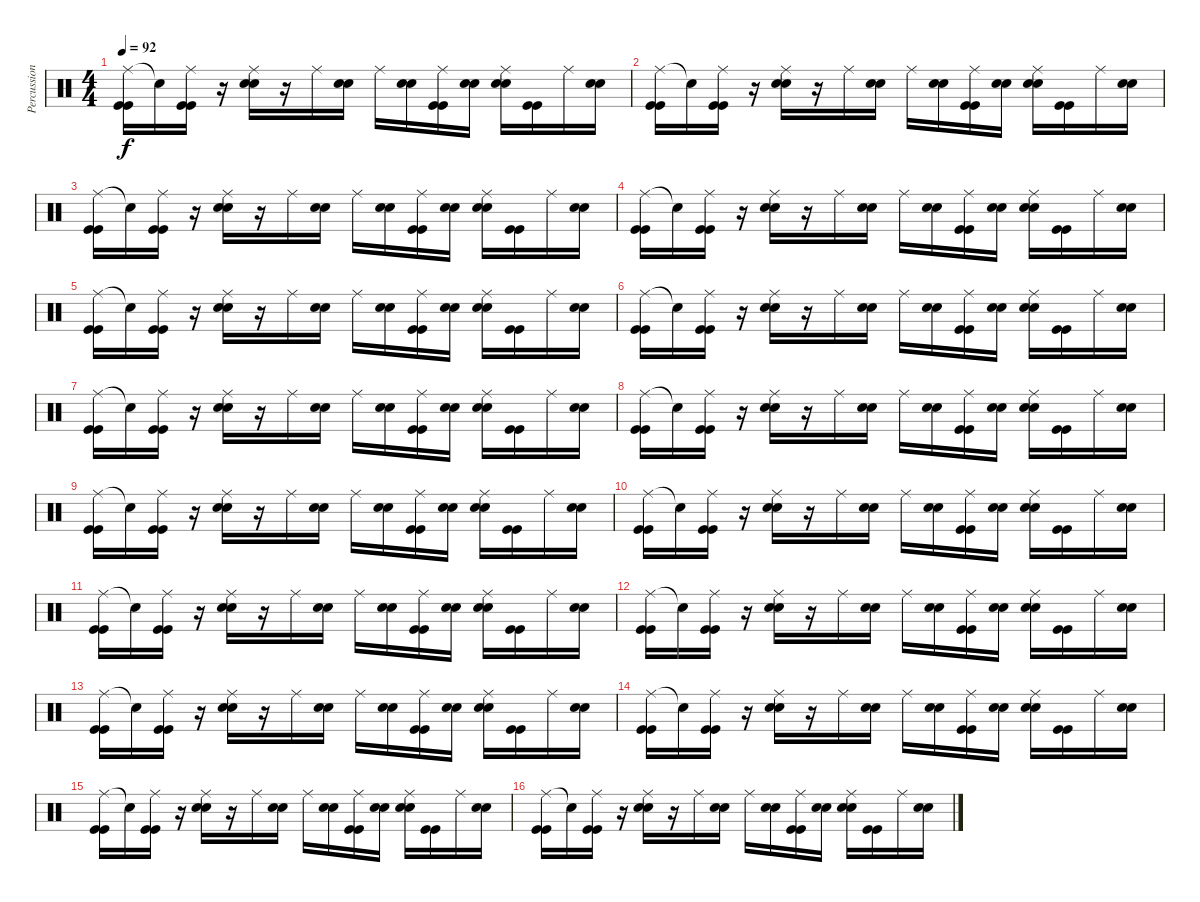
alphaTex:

\track ("Percussions" "Percussion") {instrument percussion}
\staff {score}
\articulation defaults
\ts (4 4)
\tempo 92
\clef neutral
\ks c
("Ride (middle)" "Kick (hit)" "Kick (hit)").16{dy f} "Snare (hit)"{t}.16 ("Ride (middle)" "Kick (hit)" "Kick (hit)").16 r.16 ("Ride (middle)" "Electric Snare (hit)" "Electric Snare (hit)").16 r.16 "Ride (middle)".16 ("Electric Snare (hit)" "Electric Snare (hit)").16 "Ride (middle)".16 ("Electric Snare (hit)" "Electric Snare (hit)").16 ("Ride (middle)" "Kick (hit)" "Kick (hit)").16 ("Electric Snare (hit)" "Electric Snare (hit)").16 ("Ride (middle)" "Electric Snare (hit)" "Electric Snare (hit)").16 ("Kick (hit)" "Kick (hit)").16 "Ride (middle)".16 ("Electric Snare (hit)" "Electric Snare (hit)").16 |
("Ride (middle)" "Kick (hit)" "Kick (hit)").16 "Snare (hit)"{t}.16 ("Ride (middle)" "Kick (hit)" "Kick (hit)").16 r.16 ("Ride (middle)" "Electric Snare (hit)" "Electric Snare (hit)").16 r.16 "Ride (middle)".16 ("Electric Snare (hit)" "Electric Snare (hit)").16 "Ride (middle)".16 ("Electric Snare (hit)" "Electric Snare (hit)").16 ("Ride (middle)" "Kick (hit)" "Kick (hit)").16 ("Electric Snare (hit)" "Electric Snare (hit)").16 ("Ride (middle)" "Electric Snare (hit)" "Electric Snare (hit)").16 ("Kick (hit)" "Kick (hit)").16 "Ride (middle)".16 ("Electric Snare (hit)" "Electric Snare (hit)").16 |
("Ride (middle)" "Kick (hit)" "Kick (hit)").16 "Snare (hit)"{t}.16 ("Ride (middle)" "Kick (hit)" "Kick (hit)").16 r.16 ("Ride (middle)" "Electric Snare (hit)" "Electric Snare (hit)").16 r.16 "Ride (middle)".16 ("Electric Snare (hit)" "Electric Snare (hit)").16 "Ride (middle)".16 ("Electric Snare (hit)" "Electric Snare (hit)").16 ("Ride (middle)" "Kick (hit)" "Kick (hit)").16 ("Electric Snare (hit)" "Electric Snare (hit)").16 ("Ride (middle)" "Electric Snare (hit)" "Electric Snare (hit)").16 ("Kick (hit)" "Kick (hit)").16 "Ride (middle)".16 ("Electric Snare (hit)" "Electric Snare (hit)").16 |
("Ride (middle)" "Kick (hit)" "Kick (hit)").16 "Snare (hit)"{t}.16 ("Ride (middle)" "Kick (hit)" "Kick (hit)").16 r.16 ("Ride (middle)" "Electric Snare (hit)" "Electric Snare (hit)").16 r.16 "Ride (middle)".16 ("Electric Snare (hit)" "Electric Snare (hit)").16 "Ride (middle)".16 ("Electric Snare (hit)" "Electric Snare (hit)").16 ("Ride (middle)" "Kick (hit)" "Kick (hit)").16 ("Electric Snare (hit)" "Electric Snare (hit)").16 ("Ride (middle)" "Electric Snare (hit)" "Electric Snare (hit)").16 ("Kick (hit)" "Kick (hit)").16 "Ride (middle)".16 ("Electric Snare (hit)" "Electric Snare (hit)").16 |
("Ride (middle)" "Kick (hit)" "Kick (hit)").16 "Snare (hit)"{t}.16 ("Ride (middle)" "Kick (hit)" "Kick (hit)").16 r.16 ("Ride (middle)" "Electric Snare (hit)" "Electric Snare (hit)").16 r.16 "Ride (middle)".16 ("Electric Snare (hit)" "Electric Snare (hit)").16 "Ride (middle)".16 ("Electric Snare (hit)" "Electric Snare (hit)").16 ("Ride (middle)" "Kick (hit)" "Kick (hit)").16 ("Electric Snare (hit)" "Electric Snare (hit)").16 ("Ride (middle)" "Electric Snare (hit)" "Electric Snare (hit)").16 ("Kick (hit)" "Kick (hit)").16 "Ride (middle)".16 ("Electric Snare (hit)" "Electric Snare (hit)").16 |
("Ride (middle)" "Kick (hit)" "Kick (hit)").16 "Snare (hit)"{t}.16 ("Ride (middle)" "Kick (hit)" "Kick (hit)").16 r.16 ("Ride (middle)" "Electric Snare (hit)" "Electric Snare (hit)").16 r.16 "Ride (middle)".16 ("Electric Snare (hit)" "Electric Snare (hit)").16 "Ride (middle)".16 ("Electric Snare (hit)" "Electric Snare (hit)").16 ("Ride (middle)" "Kick (hit)" "Kick (hit)").16 ("Electric Snare (hit)" "Electric Snare (hit)").16 ("Ride (middle)" "Electric Snare (hit)" "Electric Snare (hit)").16 ("Kick (hit)" "Kick (hit)").16 "Ride (middle)".16 ("Electric Snare (hit)" "Electric Snare (hit)").16 |
("Ride (middle)" "Kick (hit)" "Kick (hit)").16 "Snare (hit)"{t}.16 ("Ride (middle)" "Kick (hit)" "Kick (hit)").16 r.16 ("Ride (middle)" "Electric Snare (hit)" "Electric Snare (hit)").16 r.16 "Ride (middle)".16 ("Electric Snare (hit)" "Electric Snare (hit)").16 "Ride (middle)".16 ("Electric Snare (hit)" "Electric Snare (hit)").16 ("Ride (middle)" "Kick (hit)" "Kick (hit)").16 ("Electric Snare (hit)" "Electric Snare (hit)").16 ("Ride (middle)" "Electric Snare (hit)" "Electric Snare (hit)").16 ("Kick (hit)" "Kick (hit)").16 "Ride (middle)".16 ("Electric Snare (hit)" "Electric Snare (hit)").16 |
("Ride (middle)" "Kick (hit)" "Kick (hit)").16 "Snare (hit)"{t}.16 ("Ride (middle)" "Kick (hit)" "Kick (hit)").16 r.16 ("Ride (middle)" "Electric Snare (hit)" "Electric Snare (hit)").16 r.16 "Ride (middle)".16 ("Electric Snare (hit)" "Electric Snare (hit)").16 "Ride (middle)".16 ("Electric Snare (hit)" "Electric Snare (hit)").16 ("Ride (middle)" "Kick (hit)" "Kick (hit)").16 ("Electric Snare (hit)" "Electric Snare (hit)").16 ("Ride (middle)" "Electric Snare (hit)" "Electric Snare (hit)").16 ("Kick (hit)" "Kick (hit)").16 "Ride (middle)".16 ("Electric Snare (hit)" "Electric Snare (hit)").16 |
("Ride (middle)" "Kick (hit)" "Kick (hit)").16 "Snare (hit)"{t}.16 ("Ride (middle)" "Kick (hit)" "Kick (hit)").16 r.16 ("Ride (middle)" "Electric Snare (hit)" "Electric Snare (hit)").16 r.16 "Ride (middle)".16 ("Electric Snare (hit)" "Electric Snare (hit)").16 "Ride (middle)".16 ("Electric Snare (hit)" "Electric Snare (hit)").16 ("Ride (middle)" "Kick (hit)" "Kick (hit)").16 ("Electric Snare (hit)" "Electric Snare (hit)").16 ("Ride (middle)" "Electric Snare (hit)" "Electric Snare (hit)").16 ("Kick (hit)" "Kick (hit)").16 "Ride (middle)".16 ("Electric Snare (hit)" "Electric Snare (hit)").16 |
("Ride (middle)" "Kick (hit)" "Kick (hit)").16 "Snare (hit)"{t}.16 ("Ride (middle)" "Kick (hit)" "Kick (hit)").16 r.16 ("Ride (middle)" "Electric Snare (hit)" "Electric Snare (hit)").16 r.16 "Ride (middle)".16 ("Electric Snare (hit)" "Electric Snare (hit)").16 "Ride (middle)".16 ("Electric Snare (hit)" "Electric Snare (hit)").16 ("Ride (middle)" "Kick (hit)" "Kick (hit)").16 ("Electric Snare (hit)" "Electric Snare (hit)").16 ("Ride (middle)" "Electric Snare (hit)" "Electric Snare (hit)").16 ("Kick (hit)" "Kick (hit)").16 "Ride (middle)".16 ("Electric Snare (hit)" "Electric Snare (hit)").16 |
("Ride (middle)" "Kick (hit)" "Kick (hit)").16 "Snare (hit)"{t}.16 ("Ride (middle)" "Kick (hit)" "Kick (hit)").16 r.16 ("Ride (middle)" "Electric Snare (hit)" "Electric Snare (hit)").16 r.16 "Ride (middle)".16 ("Electric Snare (hit)" "Electric Snare (hit)").16 "Ride (middle)".16 ("Electric Snare (hit)" "Electric Snare (hit)").16 ("Ride (middle)" "Kick (hit)" "Kick (hit)").16 ("Electric Snare (hit)" "Electric Snare (hit)").16 ("Ride (middle)" "Electric Snare (hit)" "Electric Snare (hit)").16 ("Kick (hit)" "Kick (hit)").16 "Ride (middle)".16 ("Electric Snare (hit)" "Electric Snare (hit)").16 |
("Ride (middle)" "Kick (hit)" "Kick (hit)").16 "Snare (hit)"{t}.16 ("Ride (middle)" "Kick (hit)" "Kick (hit)").16 r.16 ("Ride (middle)" "Electric Snare (hit)" "Electric Snare (hit)").16 r.16 "Ride (middle)".16 ("Electric Snare (hit)" "Electric Snare (hit)").16 "Ride (middle)".16 ("Electric Snare (hit)" "Electric Snare (hit)").16 ("Ride (middle)" "Kick (hit)" "Kick (hit)").16 ("Electric Snare (hit)" "Electric Snare (hit)").16 ("Ride (middle)" "Electric Snare (hit)" "Electric Snare (hit)").16 ("Kick (hit)" "Kick (hit)").16 "Ride (middle)".16 ("Electric Snare (hit)" "Electric Snare (hit)").16 |
("Ride (middle)" "Kick (hit)" "Kick (hit)").16 "Snare (hit)"{t}.16 ("Ride (middle)" "Kick (hit)" "Kick (hit)").16 r.16 ("Ride (middle)" "Electric Snare (hit)" "Electric Snare (hit)").16 r.16 "Ride (middle)".16 ("Electric Snare (hit)" "Electric Snare (hit)").16 "Ride (middle)".16 ("Electric Snare (hit)" "Electric Snare (hit)").16 ("Ride (middle)" "Kick (hit)" "Kick (hit)").16 ("Electric Snare (hit)" "Electric Snare (hit)").16 ("Ride (middle)" "Electric Snare (hit)" "Electric Snare (hit)").16 ("Kick (hit)" "Kick (hit)").16 "Ride (middle)".16 ("Electric Snare (hit)" "Electric Snare (hit)").16 |
("Ride (middle)" "Kick (hit)" "Kick (hit)").16 "Snare (hit)"{t}.16 ("Ride (middle)" "Kick (hit)" "Kick (hit)").16 r.16 ("Ride (middle)" "Electric Snare (hit)" "Electric Snare (hit)").16 r.16 "Ride (middle)".16 ("Electric Snare (hit)" "Electric Snare (hit)").16 "Ride (middle)".16 ("Electric Snare (hit)" "Electric Snare (hit)").16 ("Ride (middle)" "Kick (hit)" "Kick (hit)").16 ("Electric Snare (hit)" "Electric Snare (hit)").16 ("Ride (middle)" "Electric Snare (hit)" "Electric Snare (hit)").16 ("Kick (hit)" "Kick (hit)").16 "Ride (middle)".16 ("Electric Snare (hit)" "Electric Snare (hit)").16 |
("Ride (middle)" "Kick (hit)" "Kick (hit)").16 "Snare (hit)"{t}.16 ("Ride (middle)" "Kick (hit)" "Kick (hit)").16 r.16 ("Ride (middle)" "Electric Snare (hit)" "Electric Snare (hit)").16 r.16 "Ride (middle)".16 ("Electric Snare (hit)" "Electric Snare (hit)").16 "Ride (middle)".16 ("Electric Snare (hit)" "Electric Snare (hit)").16 ("Ride (middle)" "Kick (hit)" "Kick (hit)").16 ("Electric Snare (hit)" "Electric Snare (hit)").16 ("Ride (middle)" "Electric Snare (hit)" "Electric Snare (hit)").16 ("Kick (hit)" "Kick (hit)").16 "Ride (middle)".16 ("Electric Snare (hit)" "Electric Snare (hit)").16 |
("Ride (middle)" "Kick (hit)" "Kick (hit)").16 "Snare (hit)"{t}.16 ("Ride (middle)" "Kick (hit)" "Kick (hit)").16 r.16 ("Ride (middle)" "Electric Snare (hit)" "Electric Snare (hit)").16 r.16 "Ride (middle)".16 ("Electric Snare (hit)" "Electric Snare (hit)").16 "Ride (middle)".16 ("Electric Snare (hit)" "Electric Snare (hit)").16 ("Ride (middle)" "Kick (hit)" "Kick (hit)").16 ("Electric Snare (hit)" "Electric Snare (hit)").16 ("Ride (middle)" "Electric Snare (hit)" "Electric Snare (hit)").16 ("Kick (hit)" "Kick (hit)").16 "Ride (middle)".16 ("Electric Snare (hit)" "Electric Snare (hit)").16
